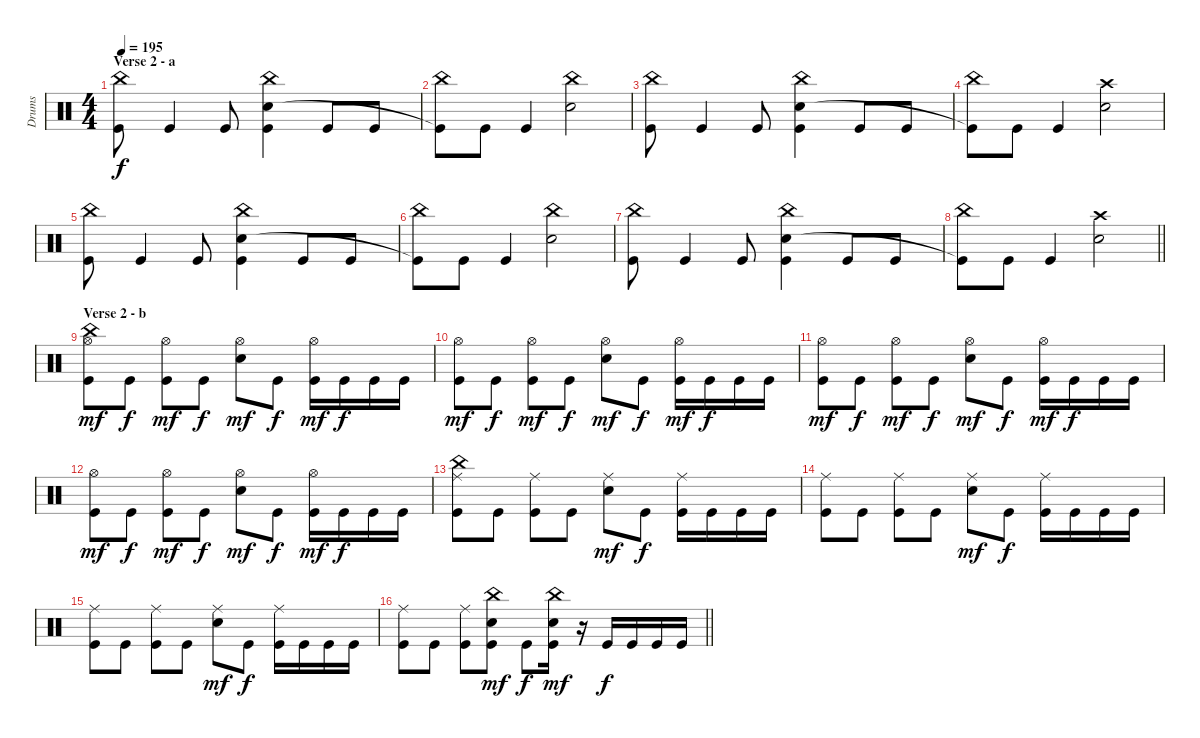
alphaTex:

\track ("Drums" "Drums") {instrument percussion}
\staff {score}
\articulation defaults
\ts (4 4)
\section ("" "Verse 2 - a")
\tempo 195
\clef neutral
\ks c
("China (hit)" "Kick (hit)").8{dy f} "Kick (hit)".4 "Kick (hit)".8 ("China (hit)" "Snare (hit) 2" "Kick (hit)").4 "Kick (hit)".8 "Kick (hit)".8 |
("China (hit)" "Kick (hit)"{t}).8 "Kick (hit)".8 "Kick (hit)".4 ("China (hit)" "Snare (hit) 2").2 |
("China (hit)" "Kick (hit)").8 "Kick (hit)".4 "Kick (hit)".8 ("China (hit)" "Snare (hit) 2" "Kick (hit)").4 "Kick (hit)".8 "Kick (hit)".8 |
("China (hit)" "Kick (hit)"{t}).8 "Kick (hit)".8 "Kick (hit)".4 ("Crash high (hit)" "Snare (hit) 2").2 |
("China (hit)" "Kick (hit)").8 "Kick (hit)".4 "Kick (hit)".8 ("China (hit)" "Snare (hit) 2" "Kick (hit)").4 "Kick (hit)".8 "Kick (hit)".8 |
("China (hit)" "Kick (hit)"{t}).8 "Kick (hit)".8 "Kick (hit)".4 ("China (hit)" "Snare (hit) 2").2 |
("China (hit)" "Kick (hit)").8 "Kick (hit)".4 "Kick (hit)".8 ("China (hit)" "Snare (hit) 2" "Kick (hit)").4 "Kick (hit)".8 "Kick (hit)".8 |
\barLineRight lightlight
("China (hit)" "Kick (hit)"{t}).8 "Kick (hit)".8 "Kick (hit)".4 ("Crash high (hit)" "Snare (hit) 2").2 |
\section ("" "Verse 2 - b")
("China (hit)" "Hi-Hat (open)" "Kick (hit)").8{dy mf} "Kick (hit)".8{dy f} ("Hi-Hat (open)" "Kick (hit)").8{dy mf} "Kick (hit)".8{dy f} ("Hi-Hat (open)" "Snare (hit) 2").8{dy mf} "Kick (hit)".8{dy f} ("Hi-Hat (open)" "Kick (hit)").16{dy mf} "Kick (hit)".16{dy f} "Kick (hit)".16 "Kick (hit)".16 |
("Hi-Hat (open)" "Kick (hit)").8{dy mf} "Kick (hit)".8{dy f} ("Hi-Hat (open)" "Kick (hit)").8{dy mf} "Kick (hit)".8{dy f} ("Hi-Hat (open)" "Snare (hit) 2").8{dy mf} "Kick (hit)".8{dy f} ("Hi-Hat (open)" "Kick (hit)").16{dy mf} "Kick (hit)".16{dy f} "Kick (hit)".16 "Kick (hit)".16 |
("Hi-Hat (open)" "Kick (hit)").8{dy mf} "Kick (hit)".8{dy f} ("Hi-Hat (open)" "Kick (hit)").8{dy mf} "Kick (hit)".8{dy f} ("Hi-Hat (open)" "Snare (hit) 2").8{dy mf} "Kick (hit)".8{dy f} ("Hi-Hat (open)" "Kick (hit)").16{dy mf} "Kick (hit)".16{dy f} "Kick (hit)".16 "Kick (hit)".16 |
("Hi-Hat (open)" "Kick (hit)").8{dy mf} "Kick (hit)".8{dy f} ("Hi-Hat (open)" "Kick (hit)").8{dy mf} "Kick (hit)".8{dy f} ("Hi-Hat (open)" "Snare (hit) 2").8{dy mf} "Kick (hit)".8{dy f} ("Hi-Hat (open)" "Kick (hit)").16{dy mf} "Kick (hit)".16{dy f} "Kick (hit)".16 "Kick (hit)".16 |
("China (hit)" "Ride (middle)" "Kick (hit)").8 "Kick (hit)".8 ("Ride (middle)" "Kick (hit)").8 "Kick (hit)".8 ("Ride (middle)" "Snare (hit) 2").8{dy mf} "Kick (hit)".8{dy f} ("Ride (middle)" "Kick (hit)").16 "Kick (hit)".16 "Kick (hit)".16 "Kick (hit)".16 |
("Ride (middle)" "Kick (hit)").8 "Kick (hit)".8 ("Ride (middle)" "Kick (hit)").8 "Kick (hit)".8 ("Ride (middle)" "Snare (hit) 2").8{dy mf} "Kick (hit)".8{dy f} ("Ride (middle)" "Kick (hit)").16 "Kick (hit)".16 "Kick (hit)".16 "Kick (hit)".16 |
("Ride (middle)" "Kick (hit)").8 "Kick (hit)".8 ("Ride (middle)" "Kick (hit)").8 "Kick (hit)".8 ("Ride (middle)" "Snare (hit) 2").8{dy mf} "Kick (hit)".8{dy f} ("Ride (middle)" "Kick (hit)").16 "Kick (hit)".16 "Kick (hit)".16 "Kick (hit)".16 |
\barLineRight lightlight
("Ride (middle)" "Kick (hit)").8 "Kick (hit)".8 ("Ride (middle)" "Kick (hit)").8 ("China (hit)" "Snare (hit) 2" "Kick (hit)").8{dy mf} "Kick (hit)".8{dy f} ("China (hit)" "Snare (hit) 2" "Kick (hit)").16{dy mf} r.16 "Kick (hit)".16{dy f} "Kick (hit)".16 "Kick (hit)".16 "Kick (hit)".16
